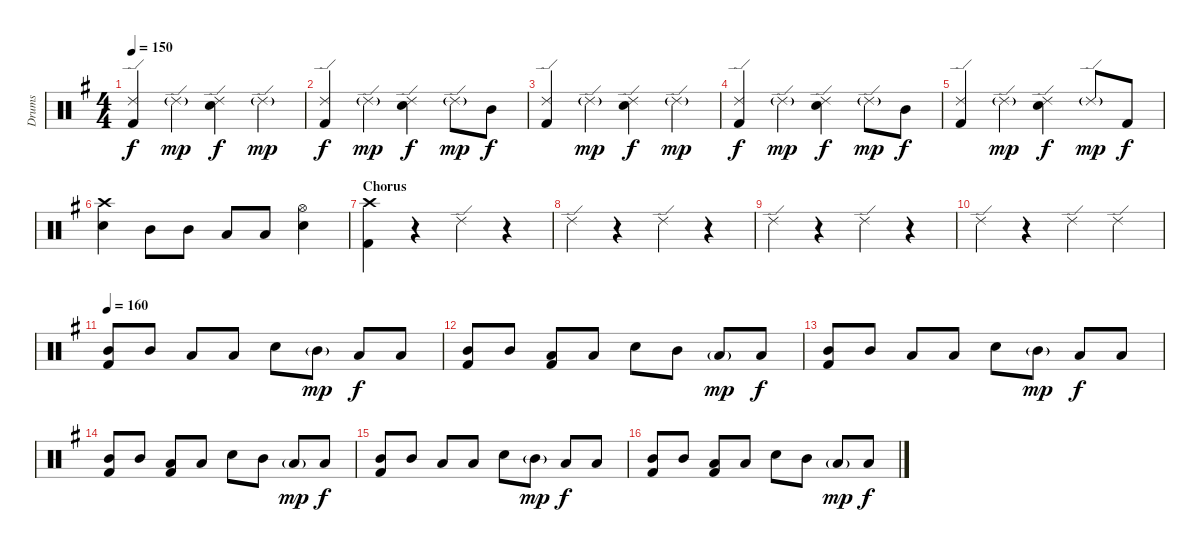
\track ("Drums" "Drums") {instrument percussion}
\staff {score}
\articulation defaults
\ts (4 4)
\tempo 150
\clef neutral
\ks g
("Ride (edge) 2" "Kick (hit) 2").4{dy f} "Ride (edge) 2"{g}.4{dy mp} ("Ride (edge) 2" "Electric Snare (hit)").4{dy f} "Ride (edge) 2"{g}.4{dy mp} |
("Ride (edge) 2" "Kick (hit) 2").4{dy f} "Ride (edge) 2"{g}.4{dy mp} ("Ride (edge) 2" "Electric Snare (hit)").4{dy f} "Ride (edge) 2"{g}.8{dy mp} "Mid Tom (hit)".8{dy f} |
("Ride (edge) 2" "Kick (hit) 2").4 "Ride (edge) 2"{g}.4{dy mp} ("Ride (edge) 2" "Electric Snare (hit)").4{dy f} "Ride (edge) 2"{g}.4{dy mp} |
("Ride (edge) 2" "Kick (hit) 2").4{dy f} "Ride (edge) 2"{g}.4{dy mp} ("Ride (edge) 2" "Electric Snare (hit)").4{dy f} "Ride (edge) 2"{g}.8{dy mp} "Mid Tom (hit)".8{dy f} |
("Ride (edge) 2" "Kick (hit) 2").4 "Ride (edge) 2"{g}.4{dy mp} ("Ride (edge) 2" "Electric Snare (hit)").4{dy f} "Ride (edge) 2"{g}.8{dy mp} "Kick (hit) 2".8{dy f} |
("Crash high (hit)" "Electric Snare (hit)").4 "Mid Tom (hit)".8 "Mid Tom (hit)".8 "Low Tom (hit)".8 "Low Tom (hit)".8 ("Hi-Hat (open)" "Electric Snare (hit)").4 |
\section ("" "Chorus")
("Crash high (hit)" "Kick (hit) 2").4 r.4 "Ride (edge) 2".4 r.4 |
"Ride (edge) 2".4 r.4 "Ride (edge) 2".4 r.4 |
"Ride (edge) 2".4 r.4 "Ride (edge) 2".4 r.4 |
"Ride (edge) 2".4 r.4 "Ride (edge) 2".4 "Ride (edge) 2".4 |
\tempo 160
("Mid Tom (hit)" "Kick (hit) 2").8 "Mid Tom (hit)".8 "Low Tom (hit)".8 "Low Tom (hit)".8 "Electric Snare (hit)".8 "Mid Tom (hit)"{g}.8{dy mp} "Low Tom (hit)".8{dy f} "Low Tom (hit)".8 |
("Mid Tom (hit)" "Kick (hit) 2").8 "Mid Tom (hit)".8 ("Low Tom (hit)" "Kick (hit) 2").8 "Low Tom (hit)".8 "Electric Snare (hit)".8 "Mid Tom (hit)".8 "Low Tom (hit)"{g}.8{dy mp} "Low Tom (hit)".8{dy f} |
("Mid Tom (hit)" "Kick (hit) 2").8 "Mid Tom (hit)".8 "Low Tom (hit)".8 "Low Tom (hit)".8 "Electric Snare (hit)".8 "Mid Tom (hit)"{g}.8{dy mp} "Low Tom (hit)".8{dy f} "Low Tom (hit)".8 |
("Mid Tom (hit)" "Kick (hit) 2").8 "Mid Tom (hit)".8 ("Low Tom (hit)" "Kick (hit) 2").8 "Low Tom (hit)".8 "Electric Snare (hit)".8 "Mid Tom (hit)".8 "Low Tom (hit)"{g}.8{dy mp} "Low Tom (hit)".8{dy f} |
("Mid Tom (hit)" "Kick (hit) 2").8 "Mid Tom (hit)".8 "Low Tom (hit)".8 "Low Tom (hit)".8 "Electric Snare (hit)".8 "Mid Tom (hit)"{g}.8{dy mp} "Low Tom (hit)".8{dy f} "Low Tom (hit)".8 |
("Mid Tom (hit)" "Kick (hit) 2").8 "Mid Tom (hit)".8 ("Low Tom (hit)" "Kick (hit) 2").8 "Low Tom (hit)".8 "Electric Snare (hit)".8 "Mid Tom (hit)".8 "Low Tom (hit)"{g}.8{dy mp} "Low Tom (hit)".8{dy f}
